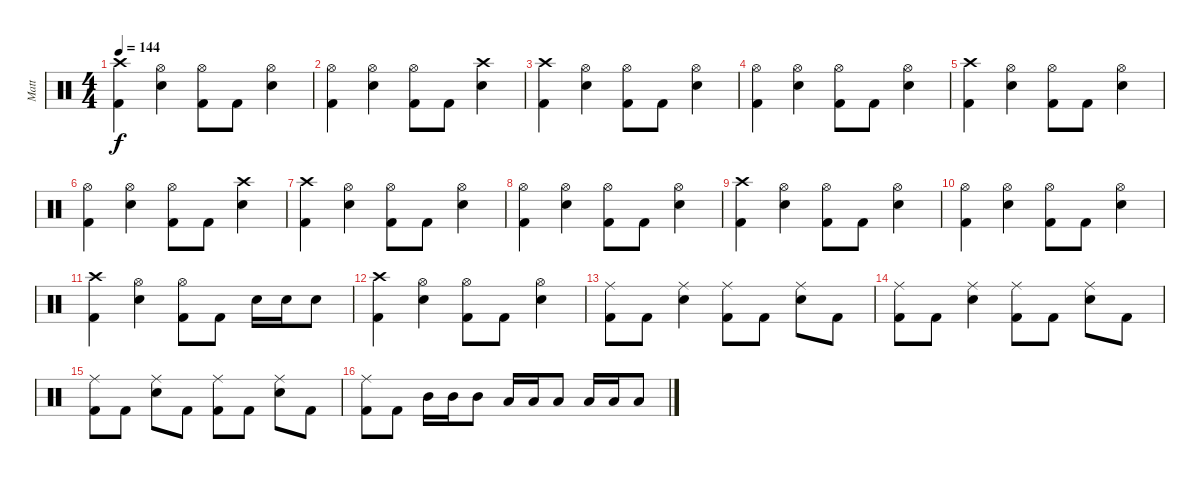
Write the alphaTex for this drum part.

\track ("Matt" "Matt") {instrument percussion}
\staff {score}
\articulation defaults
\ts (4 4)
\tempo 144
\clef neutral
\ks c
("Crash high (hit)" "Kick (hit) 2").4{dy f} ("Hi-Hat (open)" "Electric Snare (hit)").4 ("Hi-Hat (open)" "Kick (hit) 2").8 "Kick (hit) 2".8 ("Hi-Hat (open)" "Electric Snare (hit)").4 |
("Hi-Hat (open)" "Kick (hit) 2").4 ("Hi-Hat (open)" "Electric Snare (hit)").4 ("Hi-Hat (open)" "Kick (hit) 2").8 "Kick (hit) 2".8 ("Crash high (hit)" "Electric Snare (hit)").4 |
("Crash high (hit)" "Kick (hit) 2").4 ("Hi-Hat (open)" "Electric Snare (hit)").4 ("Hi-Hat (open)" "Kick (hit) 2").8 "Kick (hit) 2".8 ("Hi-Hat (open)" "Electric Snare (hit)").4 |
("Hi-Hat (open)" "Kick (hit) 2").4 ("Hi-Hat (open)" "Electric Snare (hit)").4 ("Hi-Hat (open)" "Kick (hit) 2").8 "Kick (hit) 2".8 ("Hi-Hat (open)" "Electric Snare (hit)").4 |
("Crash high (hit)" "Kick (hit) 2").4 ("Hi-Hat (open)" "Electric Snare (hit)").4 ("Hi-Hat (open)" "Kick (hit) 2").8 "Kick (hit) 2".8 ("Hi-Hat (open)" "Electric Snare (hit)").4 |
("Hi-Hat (open)" "Kick (hit) 2").4 ("Hi-Hat (open)" "Electric Snare (hit)").4 ("Hi-Hat (open)" "Kick (hit) 2").8 "Kick (hit) 2".8 ("Crash high (hit)" "Electric Snare (hit)").4 |
("Crash high (hit)" "Kick (hit) 2").4 ("Hi-Hat (open)" "Electric Snare (hit)").4 ("Hi-Hat (open)" "Kick (hit) 2").8 "Kick (hit) 2".8 ("Hi-Hat (open)" "Electric Snare (hit)").4 |
("Hi-Hat (open)" "Kick (hit) 2").4 ("Hi-Hat (open)" "Electric Snare (hit)").4 ("Hi-Hat (open)" "Kick (hit) 2").8 "Kick (hit) 2".8 ("Hi-Hat (open)" "Electric Snare (hit)").4 |
("Crash high (hit)" "Kick (hit) 2").4 ("Hi-Hat (open)" "Electric Snare (hit)").4 ("Hi-Hat (open)" "Kick (hit) 2").8 "Kick (hit) 2".8 ("Hi-Hat (open)" "Electric Snare (hit)").4 |
("Hi-Hat (open)" "Kick (hit) 2").4 ("Hi-Hat (open)" "Electric Snare (hit)").4 ("Hi-Hat (open)" "Kick (hit) 2").8 "Kick (hit) 2".8 ("Hi-Hat (open)" "Electric Snare (hit)").4 |
("Crash high (hit)" "Kick (hit) 2").4 ("Hi-Hat (open)" "Electric Snare (hit)").4 ("Hi-Hat (open)" "Kick (hit) 2").8 "Kick (hit) 2".8 "Electric Snare (hit)".16 "Electric Snare (hit)".16 "Electric Snare (hit)".8 |
("Crash high (hit)" "Kick (hit) 2").4 ("Hi-Hat (open)" "Electric Snare (hit)").4 ("Hi-Hat (open)" "Kick (hit) 2").8 "Kick (hit) 2".8 ("Hi-Hat (open)" "Electric Snare (hit)").4 |
("Ride (middle)" "Kick (hit) 2").8 "Kick (hit) 2".8 ("Ride (middle)" "Electric Snare (hit)").4 ("Ride (middle)" "Kick (hit) 2").8 "Kick (hit) 2".8 ("Ride (middle)" "Electric Snare (hit)").8 "Kick (hit) 2".8 |
("Ride (middle)" "Kick (hit) 2").8 "Kick (hit) 2".8 ("Ride (middle)" "Electric Snare (hit)").4 ("Ride (middle)" "Kick (hit) 2").8 "Kick (hit) 2".8 ("Ride (middle)" "Electric Snare (hit)").8 "Kick (hit) 2".8 |
("Ride (middle)" "Kick (hit) 2").8 "Kick (hit) 2".8 ("Ride (middle)" "Electric Snare (hit)").8 "Kick (hit) 2".8 ("Ride (middle)" "Kick (hit) 2").8 "Kick (hit) 2".8 ("Ride (middle)" "Electric Snare (hit)").8 "Kick (hit) 2".8 |
("Ride (middle)" "Kick (hit) 2").8 "Kick (hit) 2".8 "Mid Tom (hit)".16 "Mid Tom (hit)".16 "Mid Tom (hit)".8 "Low Tom (hit)".16 "Low Tom (hit)".16 "Low Tom (hit)".8 "Low Floor Tom (hit)".16 "Low Floor Tom (hit)".16 "Low Floor Tom (hit)".8
